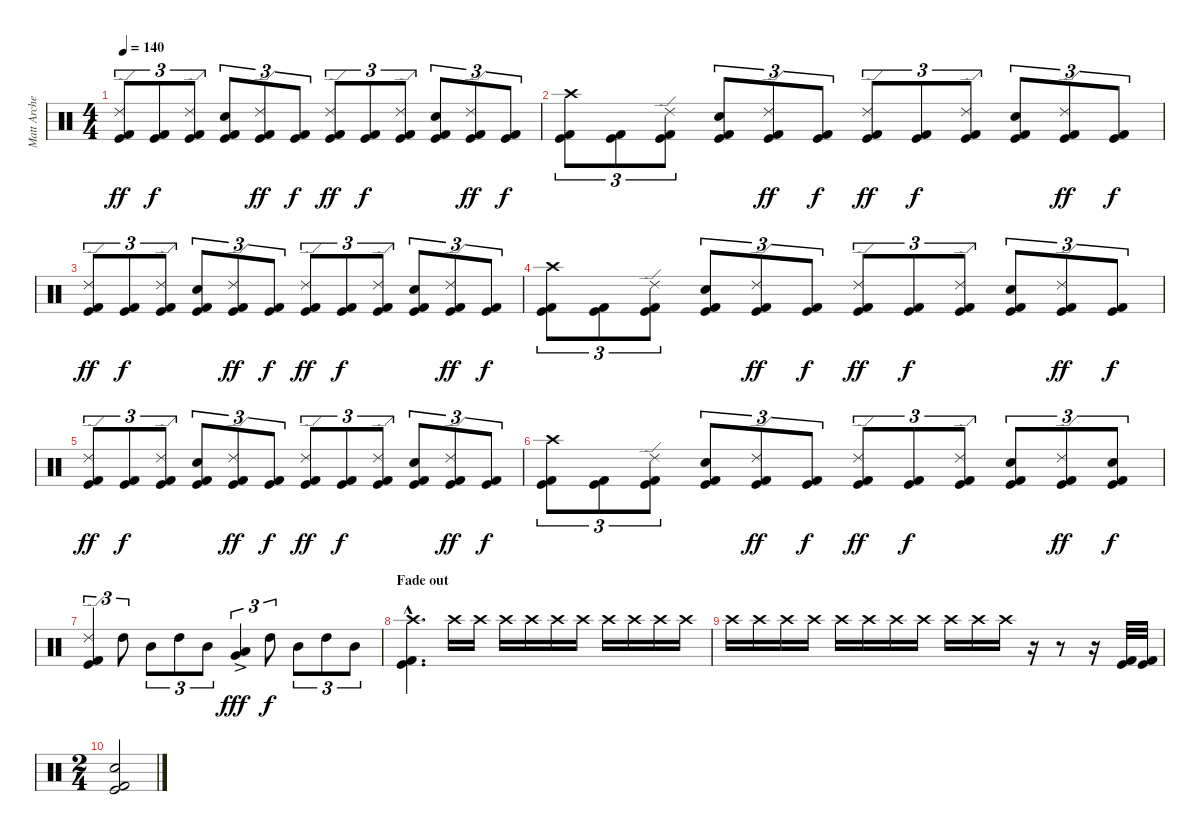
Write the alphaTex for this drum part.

\track ("Matt Archer" "Matt Arche") {instrument percussion}
\staff {score}
\articulation defaults
\ts (4 4)
\tempo 140
\clef neutral
\ks c
("Kick (hit)" "Kick (hit) 2" "Ride (edge) 2").8{tu (3 2) dy ff} ("Kick (hit)" "Kick (hit) 2").8{tu (3 2) dy f} ("Kick (hit)" "Kick (hit) 2" "Ride (edge) 2").8{tu (3 2)} ("Kick (hit)" "Kick (hit) 2" "Electric Snare (hit)").8{tu (3 2)} ("Kick (hit)" "Kick (hit) 2" "Ride (edge) 2").8{tu (3 2) dy ff} ("Kick (hit)" "Kick (hit) 2").8{tu (3 2) dy f} ("Kick (hit)" "Kick (hit) 2" "Ride (edge) 2").8{tu (3 2) dy ff} ("Kick (hit)" "Kick (hit) 2").8{tu (3 2) dy f} ("Kick (hit)" "Kick (hit) 2" "Ride (edge) 2").8{tu (3 2)} ("Kick (hit)" "Kick (hit) 2" "Electric Snare (hit)").8{tu (3 2)} ("Kick (hit)" "Kick (hit) 2" "Ride (edge) 2").8{tu (3 2) dy ff} ("Kick (hit)" "Kick (hit) 2").8{tu (3 2) dy f} |
("Kick (hit)" "Kick (hit) 2" "Crash high (hit)").8{tu (3 2)} ("Kick (hit)" "Kick (hit) 2").8{tu (3 2)} ("Kick (hit)" "Kick (hit) 2" "Ride (edge) 2").8{tu (3 2)} ("Kick (hit)" "Kick (hit) 2" "Electric Snare (hit)").8{tu (3 2)} ("Kick (hit)" "Kick (hit) 2" "Ride (edge) 2").8{tu (3 2) dy ff} ("Kick (hit)" "Kick (hit) 2").8{tu (3 2) dy f} ("Kick (hit)" "Kick (hit) 2" "Ride (edge) 2").8{tu (3 2) dy ff} ("Kick (hit)" "Kick (hit) 2").8{tu (3 2) dy f} ("Kick (hit)" "Kick (hit) 2" "Ride (edge) 2").8{tu (3 2)} ("Kick (hit)" "Kick (hit) 2" "Electric Snare (hit)").8{tu (3 2)} ("Kick (hit)" "Kick (hit) 2" "Ride (edge) 2").8{tu (3 2) dy ff} ("Kick (hit)" "Kick (hit) 2").8{tu (3 2) dy f} |
("Kick (hit)" "Kick (hit) 2" "Ride (edge) 2").8{tu (3 2) dy ff} ("Kick (hit)" "Kick (hit) 2").8{tu (3 2) dy f} ("Kick (hit)" "Kick (hit) 2" "Ride (edge) 2").8{tu (3 2)} ("Kick (hit)" "Kick (hit) 2" "Electric Snare (hit)").8{tu (3 2)} ("Kick (hit)" "Kick (hit) 2" "Ride (edge) 2").8{tu (3 2) dy ff} ("Kick (hit)" "Kick (hit) 2").8{tu (3 2) dy f} ("Kick (hit)" "Kick (hit) 2" "Ride (edge) 2").8{tu (3 2) dy ff} ("Kick (hit)" "Kick (hit) 2").8{tu (3 2) dy f} ("Kick (hit)" "Kick (hit) 2" "Ride (edge) 2").8{tu (3 2)} ("Kick (hit)" "Kick (hit) 2" "Electric Snare (hit)").8{tu (3 2)} ("Kick (hit)" "Kick (hit) 2" "Ride (edge) 2").8{tu (3 2) dy ff} ("Kick (hit)" "Kick (hit) 2").8{tu (3 2) dy f} |
("Kick (hit)" "Kick (hit) 2" "Crash high (hit)").8{tu (3 2)} ("Kick (hit)" "Kick (hit) 2").8{tu (3 2)} ("Kick (hit)" "Kick (hit) 2" "Ride (edge) 2").8{tu (3 2)} ("Kick (hit)" "Kick (hit) 2" "Electric Snare (hit)").8{tu (3 2)} ("Kick (hit)" "Kick (hit) 2" "Ride (edge) 2").8{tu (3 2) dy ff} ("Kick (hit)" "Kick (hit) 2").8{tu (3 2) dy f} ("Kick (hit)" "Kick (hit) 2" "Ride (edge) 2").8{tu (3 2) dy ff} ("Kick (hit)" "Kick (hit) 2").8{tu (3 2) dy f} ("Kick (hit)" "Kick (hit) 2" "Ride (edge) 2").8{tu (3 2)} ("Kick (hit)" "Kick (hit) 2" "Electric Snare (hit)").8{tu (3 2)} ("Kick (hit)" "Kick (hit) 2" "Ride (edge) 2").8{tu (3 2) dy ff} ("Kick (hit)" "Kick (hit) 2").8{tu (3 2) dy f} |
("Kick (hit)" "Kick (hit) 2" "Ride (edge) 2").8{tu (3 2) dy ff} ("Kick (hit)" "Kick (hit) 2").8{tu (3 2) dy f} ("Kick (hit)" "Kick (hit) 2" "Ride (edge) 2").8{tu (3 2)} ("Kick (hit)" "Kick (hit) 2" "Electric Snare (hit)").8{tu (3 2)} ("Kick (hit)" "Kick (hit) 2" "Ride (edge) 2").8{tu (3 2) dy ff} ("Kick (hit)" "Kick (hit) 2").8{tu (3 2) dy f} ("Kick (hit)" "Kick (hit) 2" "Ride (edge) 2").8{tu (3 2) dy ff} ("Kick (hit)" "Kick (hit) 2").8{tu (3 2) dy f} ("Kick (hit)" "Kick (hit) 2" "Ride (edge) 2").8{tu (3 2)} ("Kick (hit)" "Kick (hit) 2" "Electric Snare (hit)").8{tu (3 2)} ("Kick (hit)" "Kick (hit) 2" "Ride (edge) 2").8{tu (3 2) dy ff} ("Kick (hit)" "Kick (hit) 2").8{tu (3 2) dy f} |
("Kick (hit)" "Kick (hit) 2" "Crash high (hit)").8{tu (3 2)} ("Kick (hit)" "Kick (hit) 2").8{tu (3 2)} ("Kick (hit)" "Kick (hit) 2" "Ride (edge) 2").8{tu (3 2)} ("Kick (hit)" "Kick (hit) 2" "Electric Snare (hit)").8{tu (3 2)} ("Kick (hit)" "Kick (hit) 2" "Ride (edge) 2").8{tu (3 2) dy ff} ("Kick (hit)" "Kick (hit) 2").8{tu (3 2) dy f} ("Kick (hit)" "Kick (hit) 2" "Ride (edge) 2").8{tu (3 2) dy ff} ("Kick (hit)" "Kick (hit) 2").8{tu (3 2) dy f} ("Kick (hit)" "Kick (hit) 2" "Ride (edge) 2").8{tu (3 2)} ("Kick (hit)" "Kick (hit) 2" "Electric Snare (hit)").8{tu (3 2)} ("Kick (hit)" "Kick (hit) 2" "Ride (edge) 2").8{tu (3 2) dy ff} ("Kick (hit)" "Kick (hit) 2" "Electric Snare (hit)").8{tu (3 2) dy f} |
("Kick (hit)" "Kick (hit) 2" "Ride (edge) 2").4{tu (3 2)} "High Tom (hit)".8{tu (3 2)} "Mid Tom (hit)".8{tu (3 2)} "High Tom (hit)".8{tu (3 2)} "Mid Tom (hit)".8{tu (3 2)} ("Very Low Tom (hit)"{ac} "Low Tom (hit)"{ac}).4{tu (3 2) dy fff} "High Tom (hit)".8{tu (3 2) dy f} "Mid Tom (hit)".8{tu (3 2)} "High Tom (hit)".8{tu (3 2)} "Mid Tom (hit)".8{tu (3 2)} |
\section ("" "Fade out")
("Kick (hit)"{hac} "Kick (hit) 2"{hac} "Crash high (hit)"{hac}).4{d} "Crash high (hit)".16{volume 4} "Crash high (hit)".16{volume 14} "Crash high (hit)".16 "Crash high (hit)".16 "Crash high (hit)".16 "Crash high (hit)".16 "Crash high (hit)".16 "Crash high (hit)".16 "Crash high (hit)".16 "Crash high (hit)".16 |
"Crash high (hit)".16 "Crash high (hit)".16 "Crash high (hit)".16 "Crash high (hit)".16 "Crash high (hit)".16 "Crash high (hit)".16 "Crash high (hit)".16 "Crash high (hit)".16 "Crash high (hit)".16 "Crash high (hit)".16 "Crash high (hit)".16 r.16 r.8 r.16 ("Kick (hit)" "Kick (hit) 2").32 ("Kick (hit)" "Kick (hit) 2").32 |
\ts (2 4)
("Kick (hit)" "Kick (hit) 2" "Electric Snare (hit)").2
